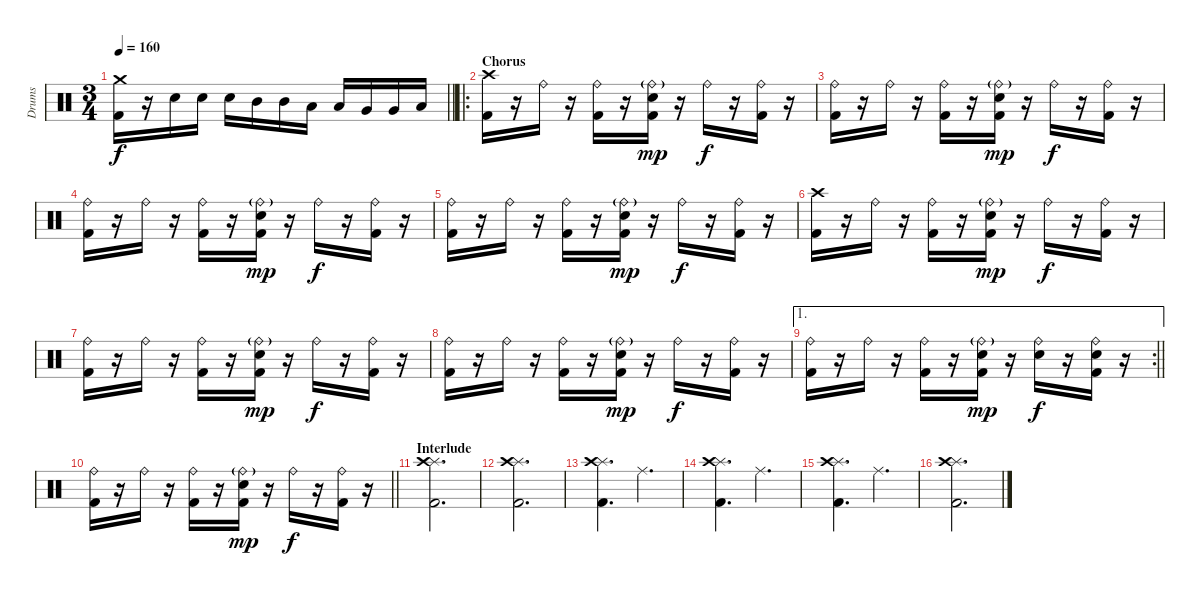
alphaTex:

\track ("Drums" "Drums") {instrument percussion}
\staff {score}
\articulation defaults
\ts (3 4)
\tempo 160
\clef neutral
\barLineRight lightlight
\ks c
("Crash medium (hit)" "Kick (hit) 2").16{dy f} r.16 "Snare (hit) 2".16 "Snare (hit) 2".16 "Snare (hit) 2".16 "Mid Tom (hit)".16 "Mid Tom (hit)".16 "Low Tom (hit)".16 "Low Tom (hit)".16 "Very Low Tom (hit)".16 "Very Low Tom (hit)".16 "Low Floor Tom (hit)".16 |
\ro
\section ("" "Chorus")
("Crash high (hit)" "Kick (hit) 2").16 r.16 "Ride (bell)".16 r.16 ("Ride (bell)" "Kick (hit) 2").16 r.16 ("Ride (bell)"{g} "Snare (hit) 2" "Kick (hit) 2").16{dy mp} r.16 "Ride (bell)".16{dy f} r.16 ("Ride (bell)" "Kick (hit) 2").16 r.16 |
("Ride (bell)" "Kick (hit) 2").16 r.16 "Ride (bell)".16 r.16 ("Ride (bell)" "Kick (hit) 2").16 r.16 ("Ride (bell)"{g} "Snare (hit) 2" "Kick (hit) 2").16{dy mp} r.16 "Ride (bell)".16{dy f} r.16 ("Ride (bell)" "Kick (hit) 2").16 r.16 |
("Ride (bell)" "Kick (hit) 2").16 r.16 "Ride (bell)".16 r.16 ("Ride (bell)" "Kick (hit) 2").16 r.16 ("Ride (bell)"{g} "Snare (hit) 2" "Kick (hit) 2").16{dy mp} r.16 "Ride (bell)".16{dy f} r.16 ("Ride (bell)" "Kick (hit) 2").16 r.16 |
("Ride (bell)" "Kick (hit) 2").16 r.16 "Ride (bell)".16 r.16 ("Ride (bell)" "Kick (hit) 2").16 r.16 ("Ride (bell)"{g} "Snare (hit) 2" "Kick (hit) 2").16{dy mp} r.16 "Ride (bell)".16{dy f} r.16 ("Ride (bell)" "Kick (hit) 2").16 r.16 |
("Crash high (hit)" "Kick (hit) 2").16 r.16 "Ride (bell)".16 r.16 ("Ride (bell)" "Kick (hit) 2").16 r.16 ("Ride (bell)"{g} "Snare (hit) 2" "Kick (hit) 2").16{dy mp} r.16 "Ride (bell)".16{dy f} r.16 ("Ride (bell)" "Kick (hit) 2").16 r.16 |
("Ride (bell)" "Kick (hit) 2").16 r.16 "Ride (bell)".16 r.16 ("Ride (bell)" "Kick (hit) 2").16 r.16 ("Ride (bell)"{g} "Snare (hit) 2" "Kick (hit) 2").16{dy mp} r.16 "Ride (bell)".16{dy f} r.16 ("Ride (bell)" "Kick (hit) 2").16 r.16 |
("Ride (bell)" "Kick (hit) 2").16 r.16 "Ride (bell)".16 r.16 ("Ride (bell)" "Kick (hit) 2").16 r.16 ("Ride (bell)"{g} "Snare (hit) 2" "Kick (hit) 2").16{dy mp} r.16 "Ride (bell)".16{dy f} r.16 ("Ride (bell)" "Kick (hit) 2").16 r.16 |
\ae 1
\rc 2
\barLineRight lightlight
("Ride (bell)" "Kick (hit) 2").16 r.16 "Ride (bell)".16 r.16 ("Ride (bell)" "Kick (hit) 2").16 r.16 ("Ride (bell)"{g} "Snare (hit) 2" "Kick (hit) 2").16{dy mp} r.16 ("Ride (bell)" "Snare (hit) 2").16{dy f} r.16 ("Ride (bell)" "Snare (hit) 2" "Kick (hit) 2").16 r.16 |
\barLineRight lightlight
("Ride (bell)" "Kick (hit) 2").16 r.16 "Ride (bell)".16 r.16 ("Ride (bell)" "Kick (hit) 2").16 r.16 ("Ride (bell)"{g} "Snare (hit) 2" "Kick (hit) 2").16{dy mp} r.16 "Ride (bell)".16{dy f} r.16 ("Ride (bell)" "Kick (hit) 2").16 r.16 |
\section ("" "Interlude")
("Splash (hit)" "Crash high (hit)" "Kick (hit) 2").2{d} |
("Splash (hit)" "Crash high (hit)" "Kick (hit) 2").2{d} |
("Splash (hit)" "Crash high (hit)" "Kick (hit) 2").4{d} "Ride (middle)".4{d} |
("Splash (hit)" "Crash high (hit)" "Kick (hit) 2").4{d} "Ride (middle)".4{d} |
("Splash (hit)" "Crash high (hit)" "Kick (hit) 2").4{d} "Ride (middle)".4{d} |
("Splash (hit)" "Crash high (hit)" "Kick (hit) 2").2{d}
